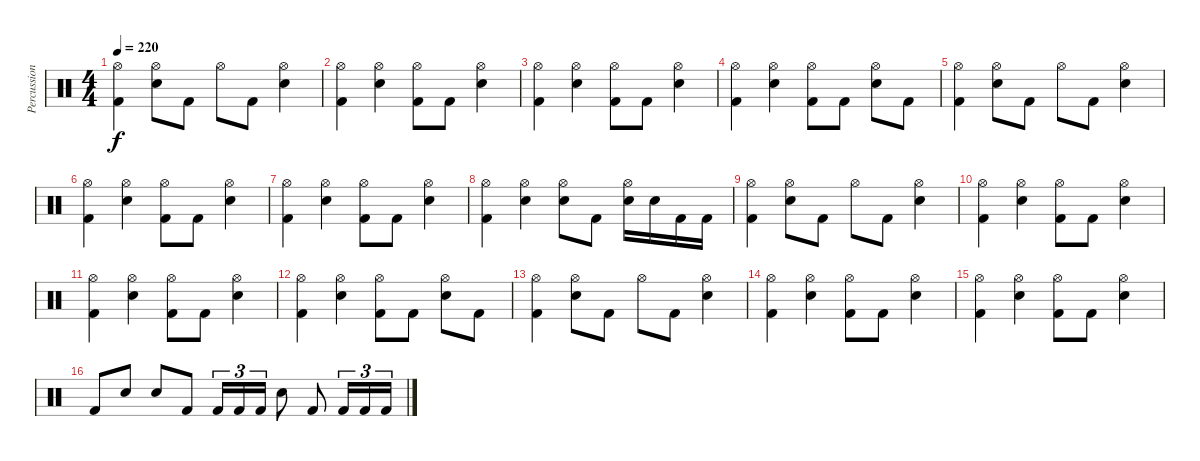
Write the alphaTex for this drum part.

\track ("Percussion" "Percussion") {instrument percussion}
\staff {score}
\articulation defaults
\ts (4 4)
\tempo 220
\clef neutral
\ks c
("Hi-Hat (open)" "Kick (hit) 2").4{dy f} ("Hi-Hat (open)" "Snare (hit) 2").8 "Kick (hit) 2".8 "Hi-Hat (open)".8 "Kick (hit) 2".8 ("Hi-Hat (open)" "Snare (hit) 2").4 |
("Hi-Hat (open)" "Kick (hit) 2").4 ("Hi-Hat (open)" "Snare (hit) 2").4 ("Hi-Hat (open)" "Kick (hit) 2").8 "Kick (hit) 2".8 ("Hi-Hat (open)" "Snare (hit) 2").4 |
("Hi-Hat (open)" "Kick (hit) 2").4 ("Hi-Hat (open)" "Snare (hit) 2").4 ("Hi-Hat (open)" "Kick (hit) 2").8 "Kick (hit) 2".8 ("Hi-Hat (open)" "Snare (hit) 2").4 |
("Hi-Hat (open)" "Kick (hit) 2").4 ("Hi-Hat (open)" "Snare (hit) 2").4 ("Hi-Hat (open)" "Kick (hit) 2").8 "Kick (hit) 2".8 ("Hi-Hat (open)" "Snare (hit) 2").8 "Kick (hit) 2".8 |
("Hi-Hat (open)" "Kick (hit) 2").4 ("Hi-Hat (open)" "Snare (hit) 2").8 "Kick (hit) 2".8 "Hi-Hat (open)".8 "Kick (hit) 2".8 ("Hi-Hat (open)" "Snare (hit) 2").4 |
("Hi-Hat (open)" "Kick (hit) 2").4 ("Hi-Hat (open)" "Snare (hit) 2").4 ("Hi-Hat (open)" "Kick (hit) 2").8 "Kick (hit) 2".8 ("Hi-Hat (open)" "Snare (hit) 2").4 |
("Hi-Hat (open)" "Kick (hit) 2").4 ("Hi-Hat (open)" "Snare (hit) 2").4 ("Hi-Hat (open)" "Kick (hit) 2").8 "Kick (hit) 2".8 ("Hi-Hat (open)" "Snare (hit) 2").4 |
("Hi-Hat (open)" "Kick (hit) 2").4 ("Hi-Hat (open)" "Snare (hit) 2").4 ("Hi-Hat (open)" "Snare (hit) 2").8 "Kick (hit) 2".8 ("Hi-Hat (open)" "Snare (hit) 2").16 "Snare (hit) 2".16 "Kick (hit) 2".16 "Kick (hit) 2".16 |
("Hi-Hat (open)" "Kick (hit) 2").4 ("Hi-Hat (open)" "Snare (hit) 2").8 "Kick (hit) 2".8 "Hi-Hat (open)".8 "Kick (hit) 2".8 ("Hi-Hat (open)" "Snare (hit) 2").4 |
("Hi-Hat (open)" "Kick (hit) 2").4 ("Hi-Hat (open)" "Snare (hit) 2").4 ("Hi-Hat (open)" "Kick (hit) 2").8 "Kick (hit) 2".8 ("Hi-Hat (open)" "Snare (hit) 2").4 |
("Hi-Hat (open)" "Kick (hit) 2").4 ("Hi-Hat (open)" "Snare (hit) 2").4 ("Hi-Hat (open)" "Kick (hit) 2").8 "Kick (hit) 2".8 ("Hi-Hat (open)" "Snare (hit) 2").4 |
("Hi-Hat (open)" "Kick (hit) 2").4 ("Hi-Hat (open)" "Snare (hit) 2").4 ("Hi-Hat (open)" "Kick (hit) 2").8 "Kick (hit) 2".8 ("Hi-Hat (open)" "Snare (hit) 2").8 "Kick (hit) 2".8 |
("Hi-Hat (open)" "Kick (hit) 2").4 ("Hi-Hat (open)" "Snare (hit) 2").8 "Kick (hit) 2".8 "Hi-Hat (open)".8 "Kick (hit) 2".8 ("Hi-Hat (open)" "Snare (hit) 2").4 |
("Hi-Hat (open)" "Kick (hit) 2").4 ("Hi-Hat (open)" "Snare (hit) 2").4 ("Hi-Hat (open)" "Kick (hit) 2").8 "Kick (hit) 2".8 ("Hi-Hat (open)" "Snare (hit) 2").4 |
("Hi-Hat (open)" "Kick (hit) 2").4 ("Hi-Hat (open)" "Snare (hit) 2").4 ("Hi-Hat (open)" "Kick (hit) 2").8 "Kick (hit) 2".8 ("Hi-Hat (open)" "Snare (hit) 2").4 |
"Kick (hit) 2".8 "Snare (hit) 2".8 "Snare (hit) 2".8 "Kick (hit) 2".8 "Kick (hit) 2".16{tu (3 2)} "Kick (hit) 2".16{tu (3 2)} "Kick (hit) 2".16{tu (3 2)} "Snare (hit) 2".8 "Kick (hit) 2".8 "Kick (hit) 2".16{tu (3 2)} "Kick (hit) 2".16{tu (3 2)} "Kick (hit) 2".16{tu (3 2)}
